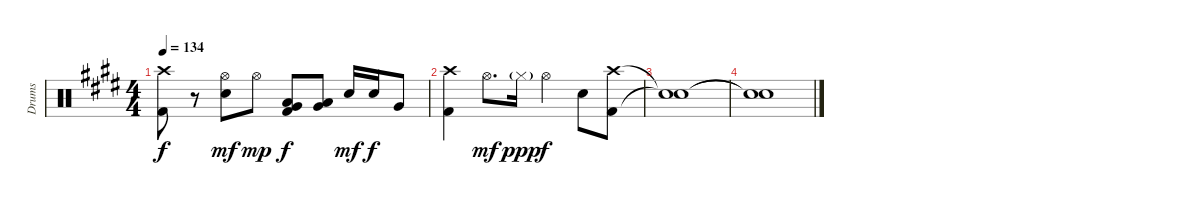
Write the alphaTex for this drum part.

\track ("Drums" "Drums") {instrument percussion}
\staff {score}
\articulation defaults
\ts (4 4)
\tempo 134
\clef neutral
\ks e
("Crash high (hit)" "Kick (hit) 2").8{dy f} r.8 ("Hi-Hat (open)" "Electric Snare (hit)").8{dy mf} "Hi-Hat (open)".8{dy mp} ("Low Tom (hit)" "Very Low Tom (hit)" "Kick (hit) 2").8{dy f} ("Low Tom (hit)" "Very Low Tom (hit)").8 "Electric Snare (hit)".16{dy mf} "Electric Snare (hit)".16{dy f} "Very Low Tom (hit)".8 |
("Crash high (hit)" "Kick (hit) 2").4 "Hi-Hat (open)".8{d dy mf} "Hi-Hat (closed)"{g}.16{dy ppp} "Hi-Hat (open)".4{dy f} "Electric Snare (hit)".8 ("Crash high (hit)" "Kick (hit) 2").8 |
("Snare (hit)"{t} "Snare (hit)"{t}).1 |
("Snare (hit)"{t} "Snare (hit)"{t}).1
